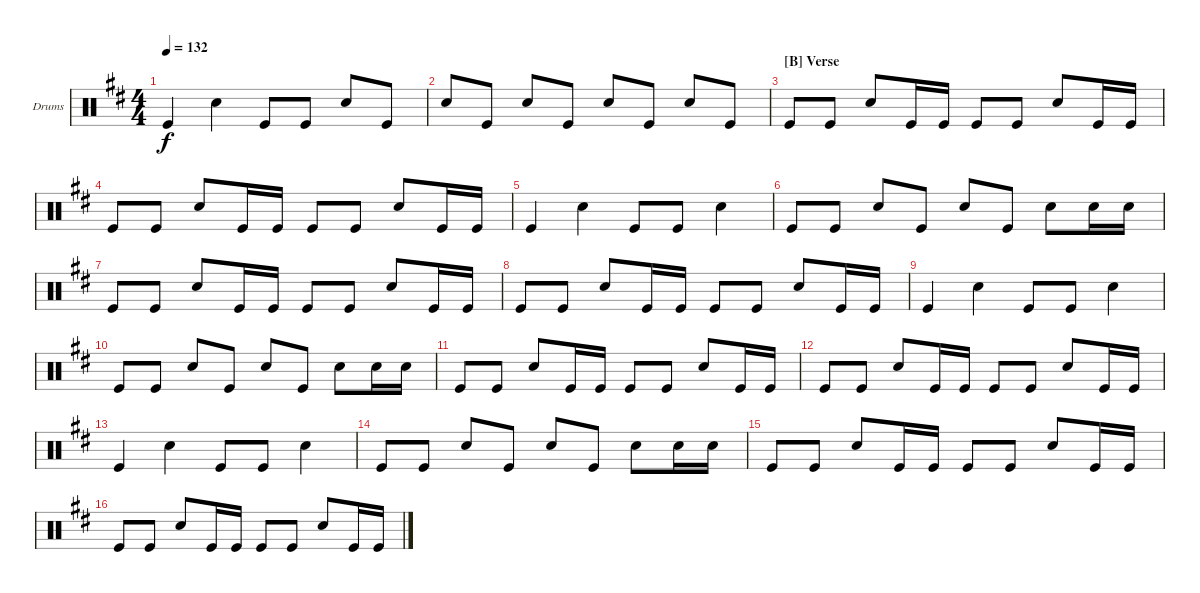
\defaultSystemsLayout 4
\bracketExtendMode groupsimilarinstruments
\firstSystemTrackNameOrientation horizontal
\otherSystemsTrackNameOrientation horizontal
\track ("Drumkit" "Drums") {instrument percussion}
\staff {score}
\articulation defaults
\ts (4 4)
\tempo 132
\clef neutral
\scale
1.05044
\ks d "Kick (hit)".4{dy f} "Snare (hit) 2".4 "Kick (hit)".8 "Kick (hit)".8 "Snare (hit) 2".8 "Kick (hit)".8
|
\scale
0.949559 "Snare (hit) 2".8 "Kick (hit)".8 "Snare (hit) 2".8 "Kick (hit)".8 "Snare (hit) 2".8 "Kick (hit)".8 "Snare (hit) 2".8 "Kick (hit)".8 |
\section ("B" "Verse")
\scale
1.05044 "Kick (hit)".8 "Kick (hit)".8 "Snare (hit) 2".8 "Kick (hit)".16 "Kick (hit)".16 "Kick (hit)".8 "Kick (hit)".8 "Snare (hit) 2".8 "Kick (hit)".16 "Kick (hit)".16 |
\scale
0.949559 "Kick (hit)".8 "Kick (hit)".8 "Snare (hit) 2".8 "Kick (hit)".16 "Kick (hit)".16 "Kick (hit)".8 "Kick (hit)".8 "Snare (hit) 2".8 "Kick (hit)".16 "Kick (hit)".16 |
\scale
1.05044 "Kick (hit)".4 "Snare (hit) 2".4 "Kick (hit)".8 "Kick (hit)".8 "Snare (hit) 2".4 |
\scale
0.949559 "Kick (hit)".8 "Kick (hit)".8 "Snare (hit) 2".8 "Kick (hit)".8 "Snare (hit) 2".8 "Kick (hit)".8 "Snare (hit) 2".8 "Snare (hit) 2".16 "Snare (hit) 2".16 |
\scale
1.05044 "Kick (hit)".8 "Kick (hit)".8 "Snare (hit) 2".8 "Kick (hit)".16 "Kick (hit)".16 "Kick (hit)".8 "Kick (hit)".8 "Snare (hit) 2".8 "Kick (hit)".16 "Kick (hit)".16 |
\scale
0.949559 "Kick (hit)".8 "Kick (hit)".8 "Snare (hit) 2".8 "Kick (hit)".16 "Kick (hit)".16 "Kick (hit)".8 "Kick (hit)".8 "Snare (hit) 2".8 "Kick (hit)".16 "Kick (hit)".16 |
\scale
1.05044 "Kick (hit)".4 "Snare (hit) 2".4 "Kick (hit)".8 "Kick (hit)".8 "Snare (hit) 2".4 |
\scale
0.949559 "Kick (hit)".8 "Kick (hit)".8 "Snare (hit) 2".8 "Kick (hit)".8 "Snare (hit) 2".8 "Kick (hit)".8 "Snare (hit) 2".8 "Snare (hit) 2".16 "Snare (hit) 2".16 |
\scale
1.05044 "Kick (hit)".8 "Kick (hit)".8 "Snare (hit) 2".8 "Kick (hit)".16 "Kick (hit)".16 "Kick (hit)".8 "Kick (hit)".8 "Snare (hit) 2".8 "Kick (hit)".16 "Kick (hit)".16 |
\scale
0.949559 "Kick (hit)".8 "Kick (hit)".8 "Snare (hit) 2".8 "Kick (hit)".16 "Kick (hit)".16 "Kick (hit)".8 "Kick (hit)".8 "Snare (hit) 2".8 "Kick (hit)".16 "Kick (hit)".16 |
\scale
1.05044 "Kick (hit)".4 "Snare (hit) 2".4 "Kick (hit)".8 "Kick (hit)".8 "Snare (hit) 2".4 |
\scale
0.949559 "Kick (hit)".8 "Kick (hit)".8 "Snare (hit) 2".8 "Kick (hit)".8 "Snare (hit) 2".8 "Kick (hit)".8 "Snare (hit) 2".8 "Snare (hit) 2".16 "Snare (hit) 2".16 |
\scale
1.05044 "Kick (hit)".8 "Kick (hit)".8 "Snare (hit) 2".8 "Kick (hit)".16 "Kick (hit)".16 "Kick (hit)".8 "Kick (hit)".8 "Snare (hit) 2".8 "Kick (hit)".16 "Kick (hit)".16 |
\scale
0.949559 "Kick (hit)".8 "Kick (hit)".8 "Snare (hit) 2".8 "Kick (hit)".16 "Kick (hit)".16 "Kick (hit)".8 "Kick (hit)".8 "Snare (hit) 2".8 "Kick (hit)".16 "Kick (hit)".16
